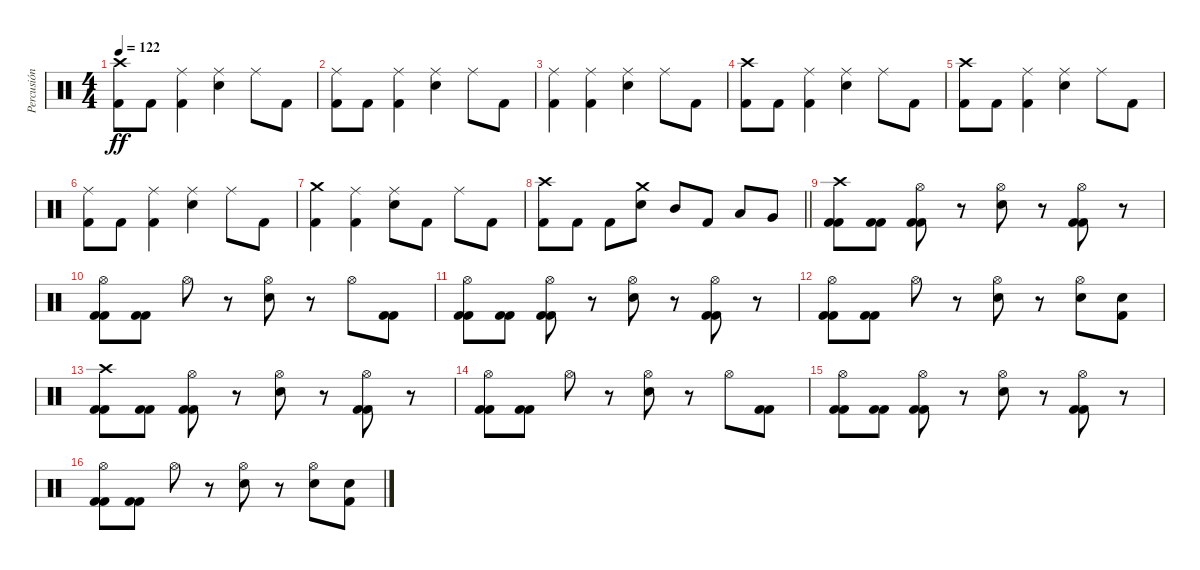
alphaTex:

\track ("Percusión" "Percusión") {instrument percussion}
\staff {score}
\articulation defaults
\ts (4 4)
\tempo 122
\clef neutral
\ks c
("Crash high (hit)" "Kick (hit) 2").8{dy ff} "Kick (hit) 2".8 ("Ride (middle)" "Kick (hit) 2").4 ("Ride (middle)" "Snare (hit) 2").4 "Ride (middle)".8 "Kick (hit) 2".8 |
("Ride (middle)" "Kick (hit) 2").8 "Kick (hit) 2".8 ("Ride (middle)" "Kick (hit) 2").4 ("Ride (middle)" "Snare (hit) 2").4 "Ride (middle)".8 "Kick (hit) 2".8 |
("Ride (middle)" "Kick (hit) 2").4 ("Ride (middle)" "Kick (hit) 2").4 ("Ride (middle)" "Snare (hit) 2").4 "Ride (middle)".8 "Kick (hit) 2".8 |
("Crash high (hit)" "Kick (hit) 2").8 "Kick (hit) 2".8 ("Ride (middle)" "Kick (hit) 2").4 ("Ride (middle)" "Snare (hit) 2").4 "Ride (middle)".8 "Kick (hit) 2".8 |
("Crash high (hit)" "Kick (hit) 2").8 "Kick (hit) 2".8 ("Ride (middle)" "Kick (hit) 2").4 ("Ride (middle)" "Snare (hit) 2").4 "Ride (middle)".8 "Kick (hit) 2".8 |
("Ride (middle)" "Kick (hit) 2").8 "Kick (hit) 2".8 ("Ride (middle)" "Kick (hit) 2").4 ("Ride (middle)" "Snare (hit) 2").4 "Ride (middle)".8 "Kick (hit) 2".8 |
("Crash medium (hit)" "Kick (hit) 2").4 ("Ride (middle)" "Kick (hit) 2").4 ("Ride (middle)" "Snare (hit) 2").8 "Kick (hit) 2".8 "Ride (middle)".8 "Kick (hit) 2".8 |
\barLineRight lightlight
("Crash high (hit)" "Kick (hit) 2").8 "Kick (hit) 2".8 "Kick (hit) 2".8 ("Crash medium (hit)" "Snare (hit) 2").8 "Mid Tom (hit)".8 "Kick (hit) 2".8 "Low Tom (hit)".8 "Very Low Tom (hit)".8 |
("Crash high (hit)" "Kick (hit) 2" "Kick (hit) 2").8 ("Kick (hit) 2" "Kick (hit) 2").8 ("Hi-Hat (open)" "Kick (hit) 2" "Kick (hit) 2").8 r.8 ("Hi-Hat (open)" "Snare (hit) 2").8 r.8 ("Hi-Hat (open)" "Kick (hit) 2" "Kick (hit) 2").8 r.8 |
("Hi-Hat (open)" "Kick (hit) 2" "Kick (hit) 2").8 ("Kick (hit) 2" "Kick (hit) 2").8 "Hi-Hat (open)".8 r.8 ("Hi-Hat (open)" "Snare (hit) 2").8 r.8 "Hi-Hat (open)".8 ("Kick (hit) 2" "Kick (hit) 2").8 |
("Hi-Hat (open)" "Kick (hit) 2" "Kick (hit) 2").8 ("Kick (hit) 2" "Kick (hit) 2").8 ("Hi-Hat (open)" "Kick (hit) 2" "Kick (hit) 2").8 r.8 ("Hi-Hat (open)" "Snare (hit) 2").8 r.8 ("Hi-Hat (open)" "Kick (hit) 2" "Kick (hit) 2").8 r.8 |
("Hi-Hat (open)" "Kick (hit) 2" "Kick (hit) 2").8 ("Kick (hit) 2" "Kick (hit) 2").8 "Hi-Hat (open)".8 r.8 ("Hi-Hat (open)" "Snare (hit) 2").8 r.8 ("Hi-Hat (open)" "Snare (hit) 2").8 ("Snare (hit) 2" "Kick (hit) 2").8 |
("Crash high (hit)" "Kick (hit) 2" "Kick (hit) 2").8 ("Kick (hit) 2" "Kick (hit) 2").8 ("Hi-Hat (open)" "Kick (hit) 2" "Kick (hit) 2").8 r.8 ("Hi-Hat (open)" "Snare (hit) 2").8 r.8 ("Hi-Hat (open)" "Kick (hit) 2" "Kick (hit) 2").8 r.8 |
("Hi-Hat (open)" "Kick (hit) 2" "Kick (hit) 2").8 ("Kick (hit) 2" "Kick (hit) 2").8 "Hi-Hat (open)".8 r.8 ("Hi-Hat (open)" "Snare (hit) 2").8 r.8 "Hi-Hat (open)".8 ("Kick (hit) 2" "Kick (hit) 2").8 |
("Hi-Hat (open)" "Kick (hit) 2" "Kick (hit) 2").8 ("Kick (hit) 2" "Kick (hit) 2").8 ("Hi-Hat (open)" "Kick (hit) 2" "Kick (hit) 2").8 r.8 ("Hi-Hat (open)" "Snare (hit) 2").8 r.8 ("Hi-Hat (open)" "Kick (hit) 2" "Kick (hit) 2").8 r.8 |
("Hi-Hat (open)" "Kick (hit) 2" "Kick (hit) 2").8 ("Kick (hit) 2" "Kick (hit) 2").8 "Hi-Hat (open)".8 r.8 ("Hi-Hat (open)" "Snare (hit) 2").8 r.8 ("Hi-Hat (open)" "Snare (hit) 2").8 ("Snare (hit) 2" "Kick (hit) 2").8
